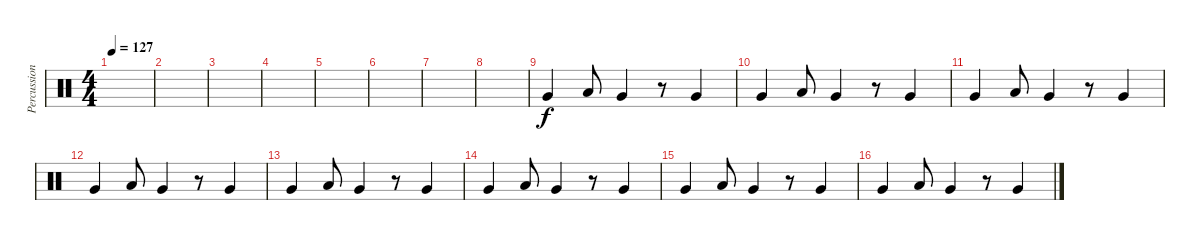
\track ("Percussion" "Percussion") {instrument percussion}
\staff {score}
\articulation defaults
\ts (4 4)
\tempo 127
\clef neutral
\ks c
|
|
|
|
|
|
|
|
"Very Low Tom (hit)".4 "Low Floor Tom (hit)".8 "Very Low Tom (hit)".4 r.8 "Very Low Tom (hit)".4 |
"Very Low Tom (hit)".4 "Low Floor Tom (hit)".8 "Very Low Tom (hit)".4 r.8 "Very Low Tom (hit)".4 |
"Very Low Tom (hit)".4 "Low Floor Tom (hit)".8 "Very Low Tom (hit)".4 r.8 "Very Low Tom (hit)".4 |
"Very Low Tom (hit)".4 "Low Floor Tom (hit)".8 "Very Low Tom (hit)".4 r.8 "Very Low Tom (hit)".4 |
"Very Low Tom (hit)".4 "Low Floor Tom (hit)".8 "Very Low Tom (hit)".4 r.8 "Very Low Tom (hit)".4 |
"Very Low Tom (hit)".4 "Low Floor Tom (hit)".8 "Very Low Tom (hit)".4 r.8 "Very Low Tom (hit)".4 |
"Very Low Tom (hit)".4 "Low Floor Tom (hit)".8 "Very Low Tom (hit)".4 r.8 "Very Low Tom (hit)".4 |
"Very Low Tom (hit)".4 "Low Floor Tom (hit)".8 "Very Low Tom (hit)".4 r.8 "Very Low Tom (hit)".4
